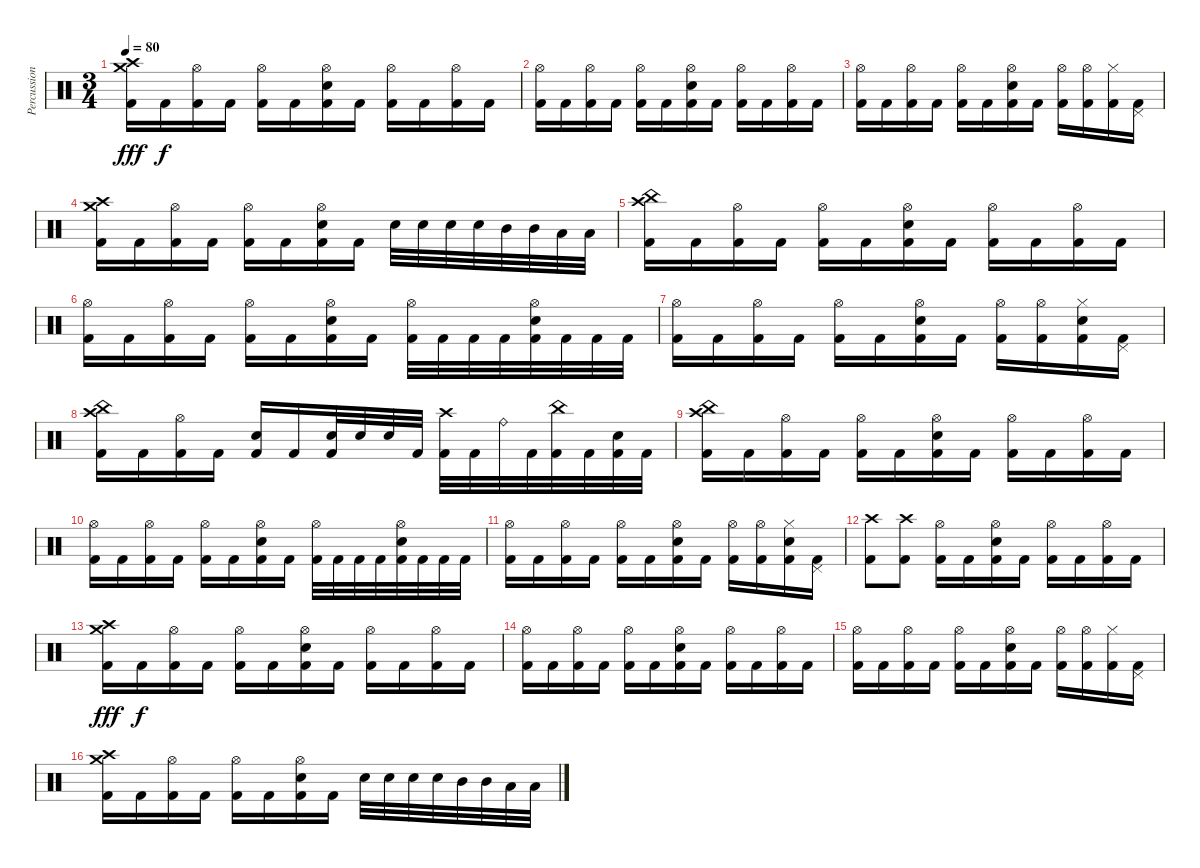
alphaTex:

\track ("Percussion" "Percussion") {instrument percussion}
\staff {score}
\articulation defaults
\ts (3 4)
\tempo 80
\clef neutral
\ks c
("Crash high (hit)" "Crash medium (hit)" "Kick (hit) 2").16{dy fff} "Kick (hit) 2".16{dy f} ("Hi-Hat (open)" "Kick (hit) 2").16 "Kick (hit) 2".16 ("Hi-Hat (open)" "Kick (hit) 2").16 "Kick (hit) 2".16 ("Hi-Hat (open)" "Electric Snare (hit)" "Kick (hit) 2").16 "Kick (hit) 2".16 ("Hi-Hat (open)" "Kick (hit) 2").16 "Kick (hit) 2".16 ("Hi-Hat (open)" "Kick (hit) 2").16 "Kick (hit) 2".16 |
("Hi-Hat (open)" "Kick (hit) 2").16 "Kick (hit) 2".16 ("Hi-Hat (open)" "Kick (hit) 2").16 "Kick (hit) 2".16 ("Hi-Hat (open)" "Kick (hit) 2").16 "Kick (hit) 2".16 ("Hi-Hat (open)" "Electric Snare (hit)" "Kick (hit) 2").16 "Kick (hit) 2".16 ("Hi-Hat (open)" "Kick (hit) 2").16 "Kick (hit) 2".16 ("Hi-Hat (open)" "Kick (hit) 2").16 "Kick (hit) 2".16 |
("Hi-Hat (open)" "Kick (hit) 2").16 "Kick (hit) 2".16 ("Hi-Hat (open)" "Kick (hit) 2").16 "Kick (hit) 2".16 ("Hi-Hat (open)" "Kick (hit) 2").16 "Kick (hit) 2".16 ("Hi-Hat (open)" "Electric Snare (hit)" "Kick (hit) 2").16 "Kick (hit) 2".16 ("Hi-Hat (open)" "Kick (hit) 2").16 ("Hi-Hat (open)" "Kick (hit) 2").16 ("Hi-Hat (closed)" "Kick (hit) 2").16 ("Pedal Hi-Hat (hit)" "Kick (hit) 2").16 |
("Crash medium (hit)" "Crash high (hit)" "Kick (hit) 2").16 "Kick (hit) 2".16 ("Hi-Hat (open)" "Kick (hit) 2").16 "Kick (hit) 2".16 ("Hi-Hat (open)" "Kick (hit) 2").16 "Kick (hit) 2".16 ("Hi-Hat (open)" "Electric Snare (hit)" "Kick (hit) 2").16 "Kick (hit) 2".16 "Electric Snare (hit)".32 "Electric Snare (hit)".32 "Electric Snare (hit)".32 "Electric Snare (hit)".32 "Mid Tom (hit)".32 "Mid Tom (hit)".32 "Low Tom (hit)".32 "Low Tom (hit)".32 |
("Crash high (hit)" "China (hit)" "Kick (hit) 2").16 "Kick (hit) 2".16 ("Hi-Hat (open)" "Kick (hit) 2").16 "Kick (hit) 2".16 ("Hi-Hat (open)" "Kick (hit) 2").16 "Kick (hit) 2".16 ("Hi-Hat (open)" "Electric Snare (hit)" "Kick (hit) 2").16 "Kick (hit) 2".16 ("Hi-Hat (open)" "Kick (hit) 2").16 "Kick (hit) 2".16 ("Hi-Hat (open)" "Kick (hit) 2").16 "Kick (hit) 2".16 |
("Hi-Hat (open)" "Kick (hit) 2").16 "Kick (hit) 2".16 ("Hi-Hat (open)" "Kick (hit) 2").16 "Kick (hit) 2".16 ("Hi-Hat (open)" "Kick (hit) 2").16 "Kick (hit) 2".16 ("Hi-Hat (open)" "Electric Snare (hit)" "Kick (hit) 2").16 "Kick (hit) 2".16 ("Hi-Hat (open)" "Kick (hit) 2").32 "Kick (hit) 2".32 "Kick (hit) 2".32 "Kick (hit) 2".32 ("Hi-Hat (open)" "Electric Snare (hit)" "Kick (hit) 2").32 "Kick (hit) 2".32 "Kick (hit) 2".32 "Kick (hit) 2".32 |
("Hi-Hat (open)" "Kick (hit) 2").16 "Kick (hit) 2".16 ("Hi-Hat (open)" "Kick (hit) 2").16 "Kick (hit) 2".16 ("Hi-Hat (open)" "Kick (hit) 2").16 "Kick (hit) 2".16 ("Hi-Hat (open)" "Electric Snare (hit)" "Kick (hit) 2").16 "Kick (hit) 2".16 ("Hi-Hat (open)" "Kick (hit) 2").16 ("Hi-Hat (open)" "Kick (hit) 2").16 ("Hi-Hat (closed)" "Electric Snare (hit)" "Kick (hit) 2").16 ("Pedal Hi-Hat (hit)" "Kick (hit) 2").16 |
("Crash high (hit)" "China (hit)" "Kick (hit) 2").16 "Kick (hit) 2".16 ("Hi-Hat (open)" "Kick (hit) 2").16 "Kick (hit) 2".16 ("Electric Snare (hit)" "Kick (hit) 2").16 "Kick (hit) 2".16 ("Electric Snare (hit)" "Kick (hit) 2").32 "Electric Snare (hit)".32 "Electric Snare (hit)".32 "Kick (hit) 2".32 ("Crash high (hit)" "Kick (hit) 2").32 "Kick (hit) 2".32 "Ride (bell)".32 "Kick (hit) 2".32 ("China (hit)" "Kick (hit) 2").32 "Kick (hit) 2".32 ("Electric Snare (hit)" "Kick (hit) 2").32 "Kick (hit) 2".32 |
("Crash high (hit)" "China (hit)" "Kick (hit) 2").16 "Kick (hit) 2".16 ("Hi-Hat (open)" "Kick (hit) 2").16 "Kick (hit) 2".16 ("Hi-Hat (open)" "Kick (hit) 2").16 "Kick (hit) 2".16 ("Hi-Hat (open)" "Electric Snare (hit)" "Kick (hit) 2").16 "Kick (hit) 2".16 ("Hi-Hat (open)" "Kick (hit) 2").16 "Kick (hit) 2".16 ("Hi-Hat (open)" "Kick (hit) 2").16 "Kick (hit) 2".16 |
("Hi-Hat (open)" "Kick (hit) 2").16 "Kick (hit) 2".16 ("Hi-Hat (open)" "Kick (hit) 2").16 "Kick (hit) 2".16 ("Hi-Hat (open)" "Kick (hit) 2").16 "Kick (hit) 2".16 ("Hi-Hat (open)" "Electric Snare (hit)" "Kick (hit) 2").16 "Kick (hit) 2".16 ("Hi-Hat (open)" "Kick (hit) 2").32 "Kick (hit) 2".32 "Kick (hit) 2".32 "Kick (hit) 2".32 ("Hi-Hat (open)" "Electric Snare (hit)" "Kick (hit) 2").32 "Kick (hit) 2".32 "Kick (hit) 2".32 "Kick (hit) 2".32 |
("Hi-Hat (open)" "Kick (hit) 2").16 "Kick (hit) 2".16 ("Hi-Hat (open)" "Kick (hit) 2").16 "Kick (hit) 2".16 ("Hi-Hat (open)" "Kick (hit) 2").16 "Kick (hit) 2".16 ("Hi-Hat (open)" "Electric Snare (hit)" "Kick (hit) 2").16 "Kick (hit) 2".16 ("Hi-Hat (open)" "Kick (hit) 2").16 ("Hi-Hat (open)" "Kick (hit) 2").16 ("Hi-Hat (closed)" "Electric Snare (hit)" "Kick (hit) 2").16 ("Pedal Hi-Hat (hit)" "Kick (hit) 2").16 |
("Crash high (hit)" "Kick (hit) 2").8 ("Crash high (hit)" "Kick (hit) 2").8 ("Hi-Hat (open)" "Kick (hit) 2").16 "Kick (hit) 2".16 ("Hi-Hat (open)" "Electric Snare (hit)" "Kick (hit) 2").16 "Kick (hit) 2".16 ("Hi-Hat (open)" "Kick (hit) 2").16 "Kick (hit) 2".16 ("Hi-Hat (open)" "Kick (hit) 2").16 "Kick (hit) 2".16 |
("Crash high (hit)" "Crash medium (hit)" "Kick (hit) 2").16{dy fff} "Kick (hit) 2".16{dy f} ("Hi-Hat (open)" "Kick (hit) 2").16 "Kick (hit) 2".16 ("Hi-Hat (open)" "Kick (hit) 2").16 "Kick (hit) 2".16 ("Hi-Hat (open)" "Electric Snare (hit)" "Kick (hit) 2").16 "Kick (hit) 2".16 ("Hi-Hat (open)" "Kick (hit) 2").16 "Kick (hit) 2".16 ("Hi-Hat (open)" "Kick (hit) 2").16 "Kick (hit) 2".16 |
("Hi-Hat (open)" "Kick (hit) 2").16 "Kick (hit) 2".16 ("Hi-Hat (open)" "Kick (hit) 2").16 "Kick (hit) 2".16 ("Hi-Hat (open)" "Kick (hit) 2").16 "Kick (hit) 2".16 ("Hi-Hat (open)" "Electric Snare (hit)" "Kick (hit) 2").16 "Kick (hit) 2".16 ("Hi-Hat (open)" "Kick (hit) 2").16 "Kick (hit) 2".16 ("Hi-Hat (open)" "Kick (hit) 2").16 "Kick (hit) 2".16 |
("Hi-Hat (open)" "Kick (hit) 2").16 "Kick (hit) 2".16 ("Hi-Hat (open)" "Kick (hit) 2").16 "Kick (hit) 2".16 ("Hi-Hat (open)" "Kick (hit) 2").16 "Kick (hit) 2".16 ("Hi-Hat (open)" "Electric Snare (hit)" "Kick (hit) 2").16 "Kick (hit) 2".16 ("Hi-Hat (open)" "Kick (hit) 2").16 ("Hi-Hat (open)" "Kick (hit) 2").16 ("Hi-Hat (closed)" "Kick (hit) 2").16 ("Pedal Hi-Hat (hit)" "Kick (hit) 2").16 |
("Crash medium (hit)" "Crash high (hit)" "Kick (hit) 2").16 "Kick (hit) 2".16 ("Hi-Hat (open)" "Kick (hit) 2").16 "Kick (hit) 2".16 ("Hi-Hat (open)" "Kick (hit) 2").16 "Kick (hit) 2".16 ("Hi-Hat (open)" "Electric Snare (hit)" "Kick (hit) 2").16 "Kick (hit) 2".16 "Electric Snare (hit)".32 "Electric Snare (hit)".32 "Electric Snare (hit)".32 "Electric Snare (hit)".32 "Mid Tom (hit)".32 "Mid Tom (hit)".32 "Low Tom (hit)".32 "Low Tom (hit)".32
